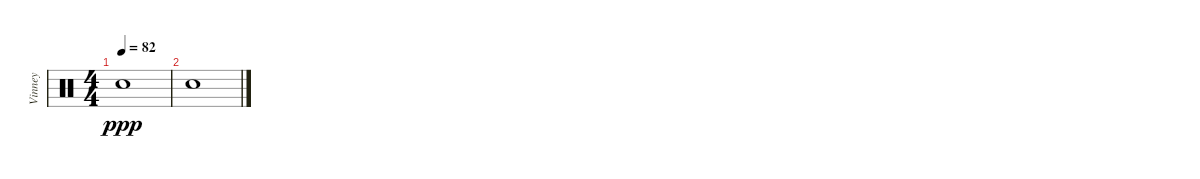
\track ("Vinney" "Vinney") {instrument percussion}
\staff {score}
\articulation defaults
\ts (4 4)
\tempo 82
\clef neutral
\ks c "Snare (hit)".1{dy ppp}
|
"Snare (hit)".1
